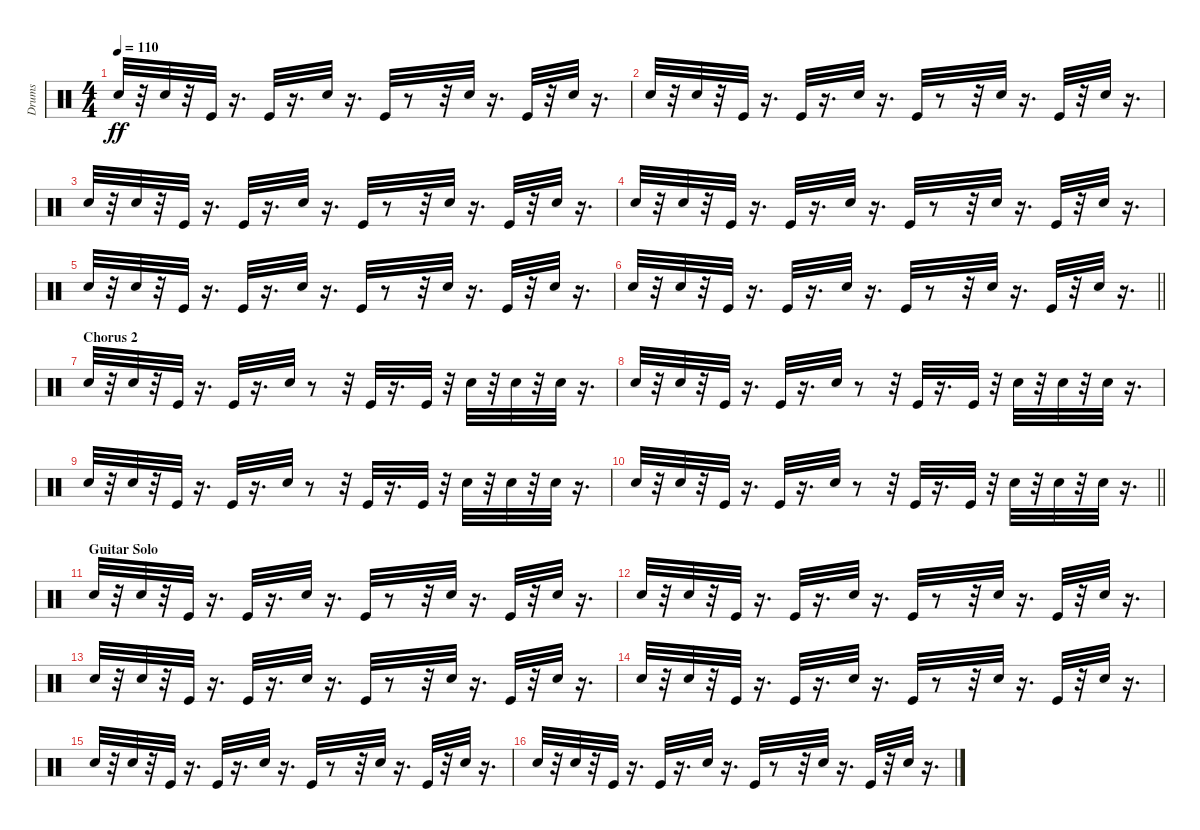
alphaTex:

\track ("Drums" "Drums") {instrument percussion}
\staff {score}
\articulation defaults
\ts (4 4)
\tempo 110
\clef neutral
\ks c "Snare (hit) 2".32{dy ff}
r.32 "Snare (hit) 2".32 r.32 "Kick (hit)".32 r.16{d} "Kick (hit)".32 r.16{d} "Snare (hit) 2".32 r.16{d} "Kick (hit)".32 r.8 r.32 "Snare (hit) 2".32 r.16{d} "Kick (hit)".32 r.32 "Snare (hit) 2".32 r.16{d} |
"Snare (hit) 2".32 r.32 "Snare (hit) 2".32 r.32 "Kick (hit)".32 r.16{d} "Kick (hit)".32 r.16{d} "Snare (hit) 2".32 r.16{d} "Kick (hit)".32 r.8 r.32 "Snare (hit) 2".32 r.16{d} "Kick (hit)".32 r.32 "Snare (hit) 2".32 r.16{d} |
"Snare (hit) 2".32 r.32 "Snare (hit) 2".32 r.32 "Kick (hit)".32 r.16{d} "Kick (hit)".32 r.16{d} "Snare (hit) 2".32 r.16{d} "Kick (hit)".32 r.8 r.32 "Snare (hit) 2".32 r.16{d} "Kick (hit)".32 r.32 "Snare (hit) 2".32 r.16{d} |
"Snare (hit) 2".32 r.32 "Snare (hit) 2".32 r.32 "Kick (hit)".32 r.16{d} "Kick (hit)".32 r.16{d} "Snare (hit) 2".32 r.16{d} "Kick (hit)".32 r.8 r.32 "Snare (hit) 2".32 r.16{d} "Kick (hit)".32 r.32 "Snare (hit) 2".32 r.16{d} |
"Snare (hit) 2".32 r.32 "Snare (hit) 2".32 r.32 "Kick (hit)".32 r.16{d} "Kick (hit)".32 r.16{d} "Snare (hit) 2".32 r.16{d} "Kick (hit)".32 r.8 r.32 "Snare (hit) 2".32 r.16{d} "Kick (hit)".32 r.32 "Snare (hit) 2".32 r.16{d} |
\barLineRight lightlight "Snare (hit) 2".32
r.32 "Snare (hit) 2".32 r.32 "Kick (hit)".32 r.16{d} "Kick (hit)".32 r.16{d} "Snare (hit) 2".32 r.16{d} "Kick (hit)".32 r.8 r.32 "Snare (hit) 2".32 r.16{d} "Kick (hit)".32 r.32 "Snare (hit) 2".32 r.16{d} |
\section ("" "Chorus 2")
"Snare (hit) 2".32 r.32 "Snare (hit) 2".32 r.32 "Kick (hit)".32 r.16{d} "Kick (hit)".32 r.16{d} "Snare (hit) 2".32 r.8 r.32 "Kick (hit)".32 r.16{d} "Kick (hit)".32 r.32 "Snare (hit) 2".32 r.32 "Snare (hit) 2".32 r.32 "Snare (hit) 2".32 r.16{d} |
"Snare (hit) 2".32 r.32 "Snare (hit) 2".32 r.32 "Kick (hit)".32 r.16{d} "Kick (hit)".32 r.16{d} "Snare (hit) 2".32 r.8 r.32 "Kick (hit)".32 r.16{d} "Kick (hit)".32 r.32 "Snare (hit) 2".32 r.32 "Snare (hit) 2".32 r.32 "Snare (hit) 2".32 r.16{d} |
"Snare (hit) 2".32 r.32 "Snare (hit) 2".32 r.32 "Kick (hit)".32 r.16{d} "Kick (hit)".32 r.16{d} "Snare (hit) 2".32 r.8 r.32 "Kick (hit)".32 r.16{d} "Kick (hit)".32 r.32 "Snare (hit) 2".32 r.32 "Snare (hit) 2".32 r.32 "Snare (hit) 2".32 r.16{d} |
\barLineRight lightlight "Snare (hit) 2".32
r.32 "Snare (hit) 2".32 r.32 "Kick (hit)".32 r.16{d} "Kick (hit)".32 r.16{d} "Snare (hit) 2".32 r.8 r.32 "Kick (hit)".32 r.16{d} "Kick (hit)".32 r.32 "Snare (hit) 2".32 r.32 "Snare (hit) 2".32 r.32 "Snare (hit) 2".32 r.16{d} |
\section ("" "Guitar Solo")
"Snare (hit) 2".32 r.32 "Snare (hit) 2".32 r.32 "Kick (hit)".32 r.16{d} "Kick (hit)".32 r.16{d} "Snare (hit) 2".32 r.16{d} "Kick (hit)".32 r.8 r.32 "Snare (hit) 2".32 r.16{d} "Kick (hit)".32 r.32 "Snare (hit) 2".32 r.16{d} |
"Snare (hit) 2".32 r.32 "Snare (hit) 2".32 r.32 "Kick (hit)".32 r.16{d} "Kick (hit)".32 r.16{d} "Snare (hit) 2".32 r.16{d} "Kick (hit)".32 r.8 r.32 "Snare (hit) 2".32 r.16{d} "Kick (hit)".32 r.32 "Snare (hit) 2".32 r.16{d} |
"Snare (hit) 2".32 r.32 "Snare (hit) 2".32 r.32 "Kick (hit)".32 r.16{d} "Kick (hit)".32 r.16{d} "Snare (hit) 2".32 r.16{d} "Kick (hit)".32 r.8 r.32 "Snare (hit) 2".32 r.16{d} "Kick (hit)".32 r.32 "Snare (hit) 2".32 r.16{d} |
"Snare (hit) 2".32 r.32 "Snare (hit) 2".32 r.32 "Kick (hit)".32 r.16{d} "Kick (hit)".32 r.16{d} "Snare (hit) 2".32 r.16{d} "Kick (hit)".32 r.8 r.32 "Snare (hit) 2".32 r.16{d} "Kick (hit)".32 r.32 "Snare (hit) 2".32 r.16{d} |
"Snare (hit) 2".32 r.32 "Snare (hit) 2".32 r.32 "Kick (hit)".32 r.16{d} "Kick (hit)".32 r.16{d} "Snare (hit) 2".32 r.16{d} "Kick (hit)".32 r.8 r.32 "Snare (hit) 2".32 r.16{d} "Kick (hit)".32 r.32 "Snare (hit) 2".32 r.16{d} |
"Snare (hit) 2".32 r.32 "Snare (hit) 2".32 r.32 "Kick (hit)".32 r.16{d} "Kick (hit)".32 r.16{d} "Snare (hit) 2".32 r.16{d} "Kick (hit)".32 r.8 r.32 "Snare (hit) 2".32 r.16{d} "Kick (hit)".32 r.32 "Snare (hit) 2".32 r.16{d}
